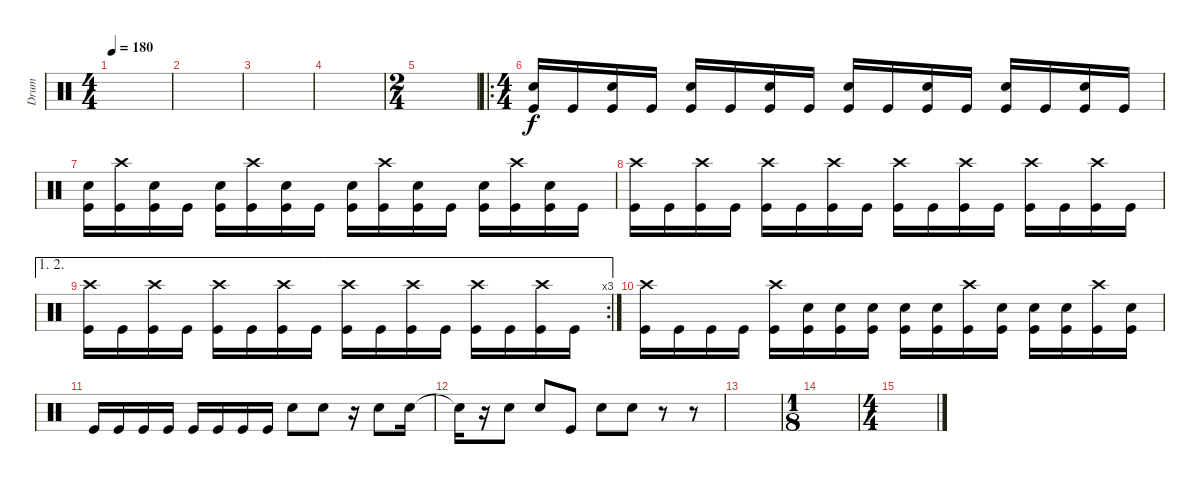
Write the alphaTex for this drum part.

\track ("Drum" "Drum") {instrument percussion}
\staff {score}
\articulation defaults
\ts (4 4)
\tempo 180
\clef neutral
\ks c
|
|
|
|
\ts (2 4)
|
\ro
\ts (4 4)
("Electric Snare (hit)" "Kick (hit)").16 "Kick (hit)".16 ("Electric Snare (hit)" "Kick (hit)").16 "Kick (hit)".16 ("Electric Snare (hit)" "Kick (hit)").16 "Kick (hit)".16 ("Electric Snare (hit)" "Kick (hit)").16 "Kick (hit)".16 ("Electric Snare (hit)" "Kick (hit)").16 "Kick (hit)".16 ("Electric Snare (hit)" "Kick (hit)").16 "Kick (hit)".16 ("Electric Snare (hit)" "Kick (hit)").16 "Kick (hit)".16 ("Electric Snare (hit)" "Kick (hit)").16 "Kick (hit)".16 |
("Electric Snare (hit)" "Kick (hit)").16 ("Crash high (hit)" "Kick (hit)").16 ("Electric Snare (hit)" "Kick (hit)").16 "Kick (hit)".16 ("Electric Snare (hit)" "Kick (hit)").16 ("Crash high (hit)" "Kick (hit)").16 ("Electric Snare (hit)" "Kick (hit)").16 "Kick (hit)".16 ("Electric Snare (hit)" "Kick (hit)").16 ("Crash high (hit)" "Kick (hit)").16 ("Electric Snare (hit)" "Kick (hit)").16 "Kick (hit)".16 ("Electric Snare (hit)" "Kick (hit)").16 ("Crash high (hit)" "Kick (hit)").16 ("Electric Snare (hit)" "Kick (hit)").16 "Kick (hit)".16 |
("Crash high (hit)" "Kick (hit)").16 "Kick (hit)".16 ("Crash high (hit)" "Kick (hit)").16 "Kick (hit)".16 ("Crash high (hit)" "Kick (hit)").16 "Kick (hit)".16 ("Crash high (hit)" "Kick (hit)").16 "Kick (hit)".16 ("Crash high (hit)" "Kick (hit)").16 "Kick (hit)".16 ("Crash high (hit)" "Kick (hit)").16 "Kick (hit)".16 ("Crash high (hit)" "Kick (hit)").16 "Kick (hit)".16 ("Crash high (hit)" "Kick (hit)").16 "Kick (hit)".16 |
\ae (1 2)
\rc 3
("Crash high (hit)" "Kick (hit)").16 "Kick (hit)".16 ("Crash high (hit)" "Kick (hit)").16 "Kick (hit)".16 ("Crash high (hit)" "Kick (hit)").16 "Kick (hit)".16 ("Crash high (hit)" "Kick (hit)").16 "Kick (hit)".16 ("Crash high (hit)" "Kick (hit)").16 "Kick (hit)".16 ("Crash high (hit)" "Kick (hit)").16 "Kick (hit)".16 ("Crash high (hit)" "Kick (hit)").16 "Kick (hit)".16 ("Crash high (hit)" "Kick (hit)").16 "Kick (hit)".16 |
("Crash high (hit)" "Kick (hit)").16 "Kick (hit)".16 "Kick (hit)".16 "Kick (hit)".16 ("Crash high (hit)" "Kick (hit)").16 ("Electric Snare (hit)" "Kick (hit)").16 ("Electric Snare (hit)" "Kick (hit)").16 ("Electric Snare (hit)" "Kick (hit)").16 ("Electric Snare (hit)" "Kick (hit)").16 ("Electric Snare (hit)" "Kick (hit)").16 ("Crash high (hit)" "Kick (hit)").16 ("Electric Snare (hit)" "Kick (hit)").16 ("Electric Snare (hit)" "Kick (hit)").16 ("Electric Snare (hit)" "Kick (hit)").16 ("Crash high (hit)" "Kick (hit)").16 ("Electric Snare (hit)" "Kick (hit)").16 |
"Kick (hit)".16 "Kick (hit)".16 "Kick (hit)".16 "Kick (hit)".16 "Kick (hit)".16 "Kick (hit)".16 "Kick (hit)".16 "Kick (hit)".16 "Electric Snare (hit)".8 "Electric Snare (hit)".8 r.16 "Electric Snare (hit)".8 "Electric Snare (hit)".16 |
"Snare (hit)"{t}.16 r.16 "Electric Snare (hit)".8 "Electric Snare (hit)".8 "Kick (hit)".8 "Electric Snare (hit)".8 "Electric Snare (hit)".8 r.8 r.8 |
|
\ts (1 8)
|
\ts (4 4)
